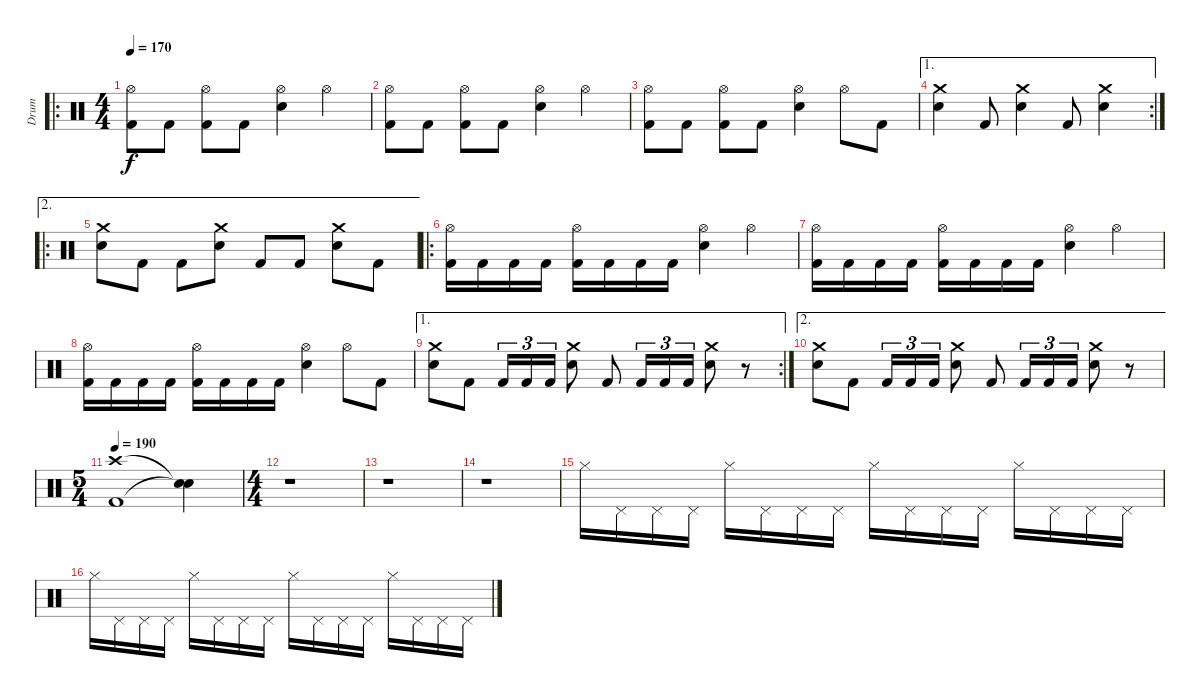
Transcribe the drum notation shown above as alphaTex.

\track ("Drum" "Drum") {instrument percussion}
\staff {score}
\articulation defaults
\ro
\ts (4 4)
\tempo 170
\clef neutral
\ks c
("Kick (hit) 2" "Hi-Hat (open)").8{dy f} "Kick (hit) 2".8 ("Kick (hit) 2" "Hi-Hat (open)").8 "Kick (hit) 2".8 ("Snare (hit) 2" "Hi-Hat (open)").4 "Hi-Hat (open)".4 |
("Kick (hit) 2" "Hi-Hat (open)").8 "Kick (hit) 2".8 ("Kick (hit) 2" "Hi-Hat (open)").8 "Kick (hit) 2".8 ("Snare (hit) 2" "Hi-Hat (open)").4 "Hi-Hat (open)".4 |
("Kick (hit) 2" "Hi-Hat (open)").8 "Kick (hit) 2".8 ("Kick (hit) 2" "Hi-Hat (open)").8 "Kick (hit) 2".8 ("Snare (hit) 2" "Hi-Hat (open)").4 "Hi-Hat (open)".8 "Kick (hit) 2".8 |
\ae 1
\rc 2
("Snare (hit) 2" "Crash medium (hit)").4 "Kick (hit) 2".8 ("Snare (hit) 2" "Crash medium (hit)").4 "Kick (hit) 2".8 ("Snare (hit) 2" "Crash medium (hit)").4 |
\ae 2
\ro
("Snare (hit) 2" "Crash medium (hit)").8 "Kick (hit) 2".8 "Kick (hit) 2".8 ("Snare (hit) 2" "Crash medium (hit)").8 "Kick (hit) 2".8 "Kick (hit) 2".8 ("Snare (hit) 2" "Crash medium (hit)").8 "Kick (hit) 2".8 |
\ro
("Kick (hit) 2" "Hi-Hat (open)").16 "Kick (hit) 2".16 "Kick (hit) 2".16 "Kick (hit) 2".16 ("Kick (hit) 2" "Hi-Hat (open)").16 "Kick (hit) 2".16 "Kick (hit) 2".16 "Kick (hit) 2".16 ("Snare (hit) 2" "Hi-Hat (open)").4 "Hi-Hat (open)".4 |
("Kick (hit) 2" "Hi-Hat (open)").16 "Kick (hit) 2".16 "Kick (hit) 2".16 "Kick (hit) 2".16 ("Kick (hit) 2" "Hi-Hat (open)").16 "Kick (hit) 2".16 "Kick (hit) 2".16 "Kick (hit) 2".16 ("Snare (hit) 2" "Hi-Hat (open)").4 "Hi-Hat (open)".4 |
("Kick (hit) 2" "Hi-Hat (open)").16 "Kick (hit) 2".16 "Kick (hit) 2".16 "Kick (hit) 2".16 ("Kick (hit) 2" "Hi-Hat (open)").16 "Kick (hit) 2".16 "Kick (hit) 2".16 "Kick (hit) 2".16 ("Snare (hit) 2" "Hi-Hat (open)").4 "Hi-Hat (open)".8 "Kick (hit) 2".8 |
\ae 1
\rc 2
("Snare (hit) 2" "Crash medium (hit)").8 "Kick (hit) 2".8 "Kick (hit) 2".16{tu (3 2)} "Kick (hit) 2".16{tu (3 2)} "Kick (hit) 2".16{tu (3 2)} ("Snare (hit) 2" "Crash medium (hit)").8 "Kick (hit) 2".8 "Kick (hit) 2".16{tu (3 2)} "Kick (hit) 2".16{tu (3 2)} "Kick (hit) 2".16{tu (3 2)} ("Snare (hit) 2" "Crash medium (hit)").8 r.8 |
\ae 2
("Snare (hit) 2" "Crash medium (hit)").8 "Kick (hit) 2".8 "Kick (hit) 2".16{tu (3 2)} "Kick (hit) 2".16{tu (3 2)} "Kick (hit) 2".16{tu (3 2)} ("Snare (hit) 2" "Crash medium (hit)").8 "Kick (hit) 2".8 "Kick (hit) 2".16{tu (3 2)} "Kick (hit) 2".16{tu (3 2)} "Kick (hit) 2".16{tu (3 2)} ("Snare (hit) 2" "Crash medium (hit)").8 r.8 |
\ts (5 4)
\tempo 190
("Kick (hit) 2" "Crash high (hit)").1 ("Snare (hit)"{t} "Snare (hit)"{t}).4 |
\ts (4 4)
r.1 |
r.1 |
r.1 |
"Hi-Hat (closed)".16 "Pedal Hi-Hat (hit)".16 "Pedal Hi-Hat (hit)".16 "Pedal Hi-Hat (hit)".16 "Hi-Hat (closed)".16 "Pedal Hi-Hat (hit)".16 "Pedal Hi-Hat (hit)".16 "Pedal Hi-Hat (hit)".16 "Hi-Hat (closed)".16 "Pedal Hi-Hat (hit)".16 "Pedal Hi-Hat (hit)".16 "Pedal Hi-Hat (hit)".16 "Hi-Hat (closed)".16 "Pedal Hi-Hat (hit)".16 "Pedal Hi-Hat (hit)".16 "Pedal Hi-Hat (hit)".16 |
"Hi-Hat (closed)".16 "Pedal Hi-Hat (hit)".16 "Pedal Hi-Hat (hit)".16 "Pedal Hi-Hat (hit)".16 "Hi-Hat (closed)".16 "Pedal Hi-Hat (hit)".16 "Pedal Hi-Hat (hit)".16 "Pedal Hi-Hat (hit)".16 "Hi-Hat (closed)".16 "Pedal Hi-Hat (hit)".16 "Pedal Hi-Hat (hit)".16 "Pedal Hi-Hat (hit)".16 "Hi-Hat (closed)".16 "Pedal Hi-Hat (hit)".16 "Pedal Hi-Hat (hit)".16 "Pedal Hi-Hat (hit)".16
